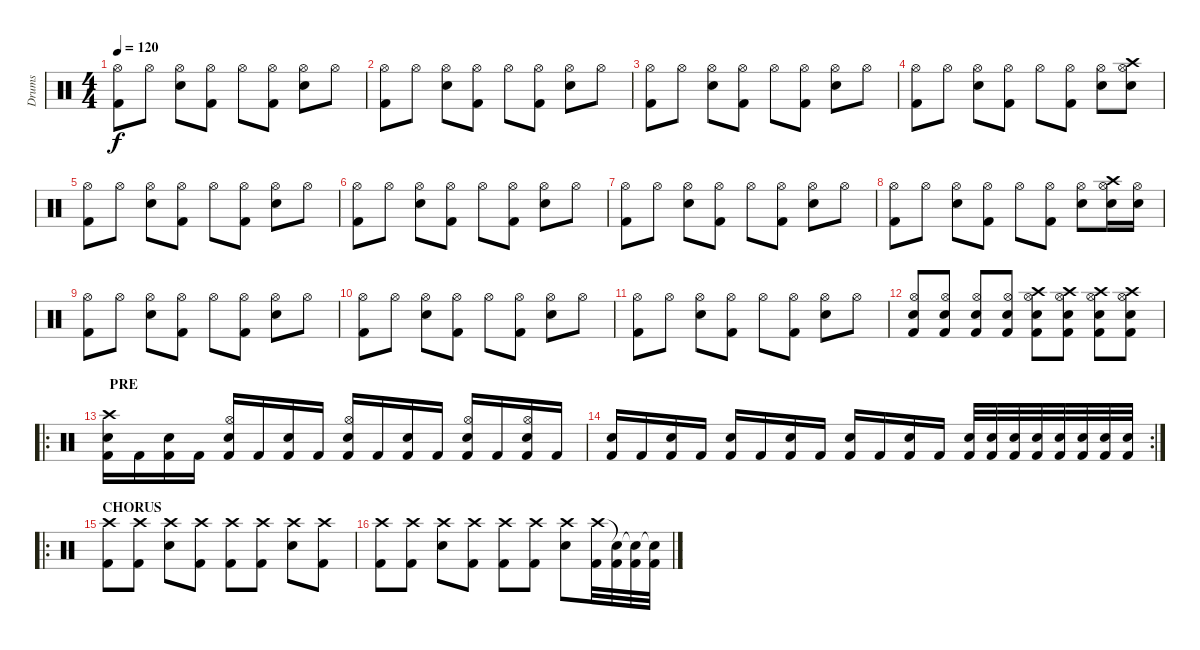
\track ("Drums" "Drums") {instrument percussion}
\staff {score}
\articulation defaults
\ts (4 4)
\tempo 120
\clef neutral
\ks c
("Kick (hit) 2" "Hi-Hat (open)").8{dy f} "Hi-Hat (open)".8 ("Electric Snare (hit)" "Hi-Hat (open)").8 ("Kick (hit) 2" "Hi-Hat (open)").8 "Hi-Hat (open)".8 ("Kick (hit) 2" "Hi-Hat (open)").8 ("Electric Snare (hit)" "Hi-Hat (open)").8 "Hi-Hat (open)".8 |
("Kick (hit) 2" "Hi-Hat (open)").8 "Hi-Hat (open)".8 ("Electric Snare (hit)" "Hi-Hat (open)").8 ("Kick (hit) 2" "Hi-Hat (open)").8 "Hi-Hat (open)".8 ("Kick (hit) 2" "Hi-Hat (open)").8 ("Electric Snare (hit)" "Hi-Hat (open)").8 "Hi-Hat (open)".8 |
("Kick (hit) 2" "Hi-Hat (open)").8 "Hi-Hat (open)".8 ("Electric Snare (hit)" "Hi-Hat (open)").8 ("Kick (hit) 2" "Hi-Hat (open)").8 "Hi-Hat (open)".8 ("Kick (hit) 2" "Hi-Hat (open)").8 ("Electric Snare (hit)" "Hi-Hat (open)").8 "Hi-Hat (open)".8 |
("Kick (hit) 2" "Hi-Hat (open)").8 "Hi-Hat (open)".8 ("Electric Snare (hit)" "Hi-Hat (open)").8 ("Kick (hit) 2" "Hi-Hat (open)").8 "Hi-Hat (open)".8 ("Kick (hit) 2" "Hi-Hat (open)").8 ("Electric Snare (hit)" "Hi-Hat (open)").8 ("Crash high (hit)" "Electric Snare (hit)" "Hi-Hat (open)").8 |
("Kick (hit) 2" "Hi-Hat (open)").8 "Hi-Hat (open)".8 ("Electric Snare (hit)" "Hi-Hat (open)").8 ("Kick (hit) 2" "Hi-Hat (open)").8 "Hi-Hat (open)".8 ("Kick (hit) 2" "Hi-Hat (open)").8 ("Electric Snare (hit)" "Hi-Hat (open)").8 "Hi-Hat (open)".8 |
("Kick (hit) 2" "Hi-Hat (open)").8 "Hi-Hat (open)".8 ("Electric Snare (hit)" "Hi-Hat (open)").8 ("Kick (hit) 2" "Hi-Hat (open)").8 "Hi-Hat (open)".8 ("Kick (hit) 2" "Hi-Hat (open)").8 ("Electric Snare (hit)" "Hi-Hat (open)").8 "Hi-Hat (open)".8 |
("Kick (hit) 2" "Hi-Hat (open)").8 "Hi-Hat (open)".8 ("Electric Snare (hit)" "Hi-Hat (open)").8 ("Kick (hit) 2" "Hi-Hat (open)").8 "Hi-Hat (open)".8 ("Kick (hit) 2" "Hi-Hat (open)").8 ("Electric Snare (hit)" "Hi-Hat (open)").8 "Hi-Hat (open)".8 |
("Kick (hit) 2" "Hi-Hat (open)").8 "Hi-Hat (open)".8 ("Electric Snare (hit)" "Hi-Hat (open)").8 ("Kick (hit) 2" "Hi-Hat (open)").8 "Hi-Hat (open)".8 ("Kick (hit) 2" "Hi-Hat (open)").8 ("Electric Snare (hit)" "Hi-Hat (open)").8 ("Crash high (hit)" "Electric Snare (hit)" "Hi-Hat (open)").16 ("Electric Snare (hit)" "Hi-Hat (open)").16 |
("Kick (hit) 2" "Hi-Hat (open)").8 "Hi-Hat (open)".8 ("Electric Snare (hit)" "Hi-Hat (open)").8 ("Kick (hit) 2" "Hi-Hat (open)").8 "Hi-Hat (open)".8 ("Kick (hit) 2" "Hi-Hat (open)").8 ("Electric Snare (hit)" "Hi-Hat (open)").8 "Hi-Hat (open)".8 |
("Kick (hit) 2" "Hi-Hat (open)").8 "Hi-Hat (open)".8 ("Electric Snare (hit)" "Hi-Hat (open)").8 ("Kick (hit) 2" "Hi-Hat (open)").8 "Hi-Hat (open)".8 ("Kick (hit) 2" "Hi-Hat (open)").8 ("Electric Snare (hit)" "Hi-Hat (open)").8 "Hi-Hat (open)".8 |
("Kick (hit) 2" "Hi-Hat (open)").8 "Hi-Hat (open)".8 ("Electric Snare (hit)" "Hi-Hat (open)").8 ("Kick (hit) 2" "Hi-Hat (open)").8 "Hi-Hat (open)".8 ("Kick (hit) 2" "Hi-Hat (open)").8 ("Electric Snare (hit)" "Hi-Hat (open)").8 "Hi-Hat (open)".8 |
("Electric Snare (hit)" "Kick (hit) 2" "Hi-Hat (open)").8 ("Electric Snare (hit)" "Kick (hit) 2" "Hi-Hat (open)").8 ("Electric Snare (hit)" "Kick (hit) 2" "Hi-Hat (open)").8 ("Electric Snare (hit)" "Kick (hit) 2" "Hi-Hat (open)").8 ("Electric Snare (hit)" "Kick (hit) 2" "Crash high (hit)" "Hi-Hat (open)").8 ("Electric Snare (hit)" "Kick (hit) 2" "Crash high (hit)" "Hi-Hat (open)").8 ("Electric Snare (hit)" "Kick (hit) 2" "Crash high (hit)" "Hi-Hat (open)").8 ("Electric Snare (hit)" "Kick (hit) 2" "Crash high (hit)" "Hi-Hat (open)").8 |
\ro
\section ("" "  PRE")
("Crash high (hit)" "Electric Snare (hit)" "Kick (hit) 2").16 "Kick (hit) 2".16 ("Electric Snare (hit)" "Kick (hit) 2").16 "Kick (hit) 2".16 ("Hi-Hat (open)" "Electric Snare (hit)" "Kick (hit) 2").16 "Kick (hit) 2".16 ("Electric Snare (hit)" "Kick (hit) 2").16 "Kick (hit) 2".16 ("Hi-Hat (open)" "Electric Snare (hit)" "Kick (hit) 2").16 "Kick (hit) 2".16 ("Electric Snare (hit)" "Kick (hit) 2").16 "Kick (hit) 2".16 ("Hi-Hat (open)" "Electric Snare (hit)" "Kick (hit) 2").16 "Kick (hit) 2".16 ("Hi-Hat (open)" "Electric Snare (hit)" "Kick (hit) 2").16 "Kick (hit) 2".16 |
\rc 2
("Electric Snare (hit)" "Kick (hit) 2").16 "Kick (hit) 2".16 ("Electric Snare (hit)" "Kick (hit) 2").16 "Kick (hit) 2".16 ("Electric Snare (hit)" "Kick (hit) 2").16 "Kick (hit) 2".16 ("Electric Snare (hit)" "Kick (hit) 2").16 "Kick (hit) 2".16 ("Electric Snare (hit)" "Kick (hit) 2").16 "Kick (hit) 2".16 ("Electric Snare (hit)" "Kick (hit) 2").16 "Kick (hit) 2".16 ("Electric Snare (hit)" "Kick (hit) 2").32 ("Electric Snare (hit)" "Kick (hit) 2").32 ("Electric Snare (hit)" "Kick (hit) 2").32 ("Electric Snare (hit)" "Kick (hit) 2").32 ("Electric Snare (hit)" "Kick (hit) 2").32 ("Electric Snare (hit)" "Kick (hit) 2").32 ("Electric Snare (hit)" "Kick (hit) 2").32 ("Electric Snare (hit)" "Kick (hit) 2").32 |
\ro
\section ("" "CHORUS")
("Crash high (hit)" "Kick (hit) 2").8 ("Crash high (hit)" "Kick (hit) 2").8 ("Crash high (hit)" "Electric Snare (hit)").8 ("Crash high (hit)" "Kick (hit) 2").8 ("Crash high (hit)" "Kick (hit) 2").8 ("Crash high (hit)" "Kick (hit) 2").8 ("Crash high (hit)" "Electric Snare (hit)").8 ("Crash high (hit)" "Kick (hit) 2").8 |
("Crash high (hit)" "Kick (hit) 2").8 ("Crash high (hit)" "Kick (hit) 2").8 ("Crash high (hit)" "Electric Snare (hit)").8 ("Crash high (hit)" "Kick (hit) 2").8 ("Crash high (hit)" "Kick (hit) 2").8 ("Crash high (hit)" "Kick (hit) 2").8 ("Crash high (hit)" "Electric Snare (hit)").8 ("Crash high (hit)" "Kick (hit) 2").32 ("Snare (hit)"{t} "Kick (hit) 2").32 ("Snare (hit)"{t} "Kick (hit) 2").32 ("Snare (hit)"{t} "Kick (hit) 2").32
